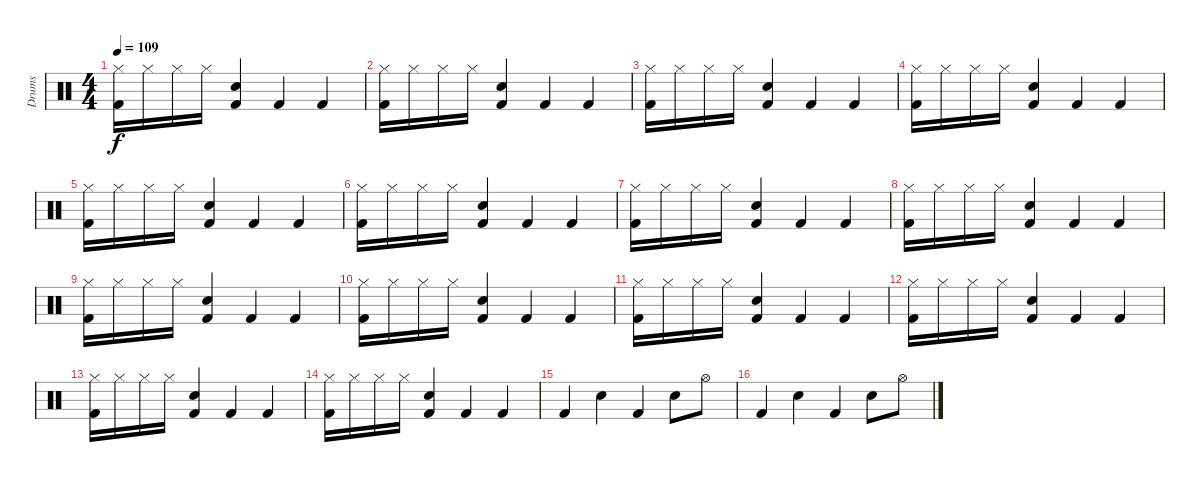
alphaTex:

\track ("Drums" "Drums") {instrument percussion}
\staff {score}
\articulation defaults
\ts (4 4)
\tempo 109
\clef neutral
\ks c
("Hi-Hat (closed)" "Kick (hit) 2").16{dy f} "Hi-Hat (closed)".16 "Hi-Hat (closed)".16 "Hi-Hat (closed)".16 ("Snare (hit) 2" "Kick (hit) 2").4 "Kick (hit) 2".4 "Kick (hit) 2".4 |
("Hi-Hat (closed)" "Kick (hit) 2").16 "Hi-Hat (closed)".16 "Hi-Hat (closed)".16 "Hi-Hat (closed)".16 ("Snare (hit) 2" "Kick (hit) 2").4 "Kick (hit) 2".4 "Kick (hit) 2".4 |
("Hi-Hat (closed)" "Kick (hit) 2").16 "Hi-Hat (closed)".16 "Hi-Hat (closed)".16 "Hi-Hat (closed)".16 ("Snare (hit) 2" "Kick (hit) 2").4 "Kick (hit) 2".4 "Kick (hit) 2".4 |
("Hi-Hat (closed)" "Kick (hit) 2").16 "Hi-Hat (closed)".16 "Hi-Hat (closed)".16 "Hi-Hat (closed)".16 ("Snare (hit) 2" "Kick (hit) 2").4 "Kick (hit) 2".4 "Kick (hit) 2".4 |
("Hi-Hat (closed)" "Kick (hit) 2").16 "Hi-Hat (closed)".16 "Hi-Hat (closed)".16 "Hi-Hat (closed)".16 ("Snare (hit) 2" "Kick (hit) 2").4 "Kick (hit) 2".4 "Kick (hit) 2".4 |
("Hi-Hat (closed)" "Kick (hit) 2").16 "Hi-Hat (closed)".16 "Hi-Hat (closed)".16 "Hi-Hat (closed)".16 ("Snare (hit) 2" "Kick (hit) 2").4 "Kick (hit) 2".4 "Kick (hit) 2".4 |
("Hi-Hat (closed)" "Kick (hit) 2").16 "Hi-Hat (closed)".16 "Hi-Hat (closed)".16 "Hi-Hat (closed)".16 ("Snare (hit) 2" "Kick (hit) 2").4 "Kick (hit) 2".4 "Kick (hit) 2".4 |
("Hi-Hat (closed)" "Kick (hit) 2").16 "Hi-Hat (closed)".16 "Hi-Hat (closed)".16 "Hi-Hat (closed)".16 ("Snare (hit) 2" "Kick (hit) 2").4 "Kick (hit) 2".4 "Kick (hit) 2".4 |
("Hi-Hat (closed)" "Kick (hit) 2").16 "Hi-Hat (closed)".16 "Hi-Hat (closed)".16 "Hi-Hat (closed)".16 ("Snare (hit) 2" "Kick (hit) 2").4 "Kick (hit) 2".4 "Kick (hit) 2".4 |
("Hi-Hat (closed)" "Kick (hit) 2").16 "Hi-Hat (closed)".16 "Hi-Hat (closed)".16 "Hi-Hat (closed)".16 ("Snare (hit) 2" "Kick (hit) 2").4 "Kick (hit) 2".4 "Kick (hit) 2".4 |
("Hi-Hat (closed)" "Kick (hit) 2").16 "Hi-Hat (closed)".16 "Hi-Hat (closed)".16 "Hi-Hat (closed)".16 ("Snare (hit) 2" "Kick (hit) 2").4 "Kick (hit) 2".4 "Kick (hit) 2".4 |
("Hi-Hat (closed)" "Kick (hit) 2").16 "Hi-Hat (closed)".16 "Hi-Hat (closed)".16 "Hi-Hat (closed)".16 ("Snare (hit) 2" "Kick (hit) 2").4 "Kick (hit) 2".4 "Kick (hit) 2".4 |
("Hi-Hat (closed)" "Kick (hit) 2").16 "Hi-Hat (closed)".16 "Hi-Hat (closed)".16 "Hi-Hat (closed)".16 ("Snare (hit) 2" "Kick (hit) 2").4 "Kick (hit) 2".4 "Kick (hit) 2".4 |
("Hi-Hat (closed)" "Kick (hit) 2").16 "Hi-Hat (closed)".16 "Hi-Hat (closed)".16 "Hi-Hat (closed)".16 ("Snare (hit) 2" "Kick (hit) 2").4 "Kick (hit) 2".4 "Kick (hit) 2".4 |
"Kick (hit) 2".4 "Snare (hit) 2".4 "Kick (hit) 2".4 "Snare (hit) 2".8 "Hi-Hat (open)".8 |
"Kick (hit) 2".4 "Snare (hit) 2".4 "Kick (hit) 2".4 "Snare (hit) 2".8 "Hi-Hat (open)".8
